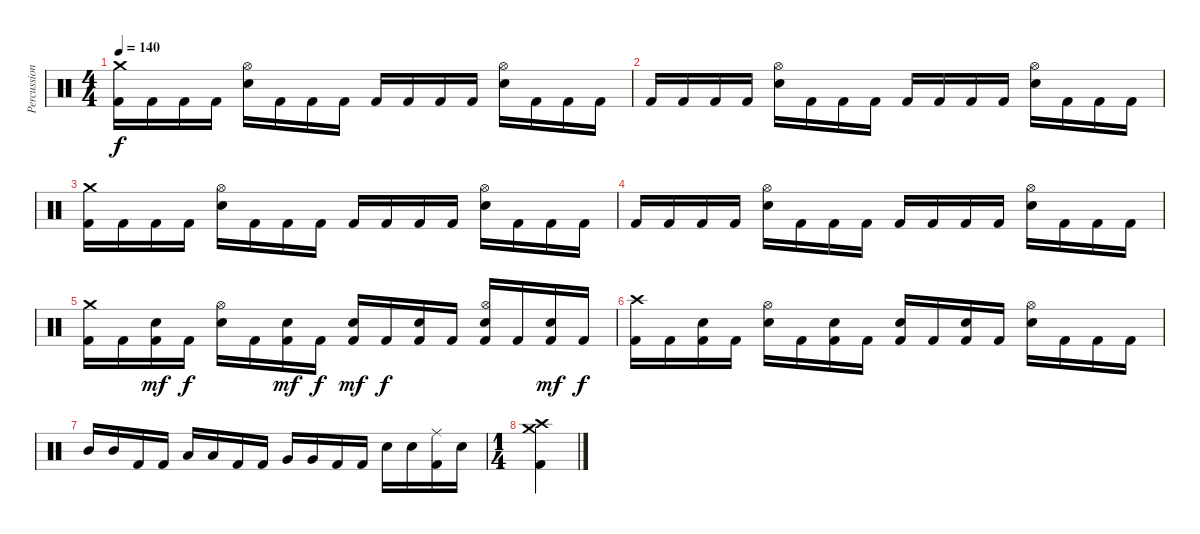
\track ("Percussion" "Percussion") {instrument percussion}
\staff {score}
\articulation defaults
\ts (4 4)
\tempo 140
\clef neutral
\ks c
("Crash medium (hit)" "Kick (hit) 2").16{dy f} "Kick (hit) 2".16 "Kick (hit) 2".16 "Kick (hit) 2".16 ("Hi-Hat (open)" "Electric Snare (hit)").16 "Kick (hit) 2".16 "Kick (hit) 2".16 "Kick (hit) 2".16 "Kick (hit) 2".16 "Kick (hit) 2".16 "Kick (hit) 2".16 "Kick (hit) 2".16 ("Hi-Hat (open)" "Electric Snare (hit)").16 "Kick (hit) 2".16 "Kick (hit) 2".16 "Kick (hit) 2".16 |
"Kick (hit) 2".16 "Kick (hit) 2".16 "Kick (hit) 2".16 "Kick (hit) 2".16 ("Hi-Hat (open)" "Electric Snare (hit)").16 "Kick (hit) 2".16 "Kick (hit) 2".16 "Kick (hit) 2".16 "Kick (hit) 2".16 "Kick (hit) 2".16 "Kick (hit) 2".16 "Kick (hit) 2".16 ("Hi-Hat (open)" "Electric Snare (hit)").16 "Kick (hit) 2".16 "Kick (hit) 2".16 "Kick (hit) 2".16 |
("Crash medium (hit)" "Kick (hit) 2").16 "Kick (hit) 2".16 "Kick (hit) 2".16 "Kick (hit) 2".16 ("Hi-Hat (open)" "Electric Snare (hit)").16 "Kick (hit) 2".16 "Kick (hit) 2".16 "Kick (hit) 2".16 "Kick (hit) 2".16 "Kick (hit) 2".16 "Kick (hit) 2".16 "Kick (hit) 2".16 ("Hi-Hat (open)" "Electric Snare (hit)").16 "Kick (hit) 2".16 "Kick (hit) 2".16 "Kick (hit) 2".16 |
"Kick (hit) 2".16 "Kick (hit) 2".16 "Kick (hit) 2".16 "Kick (hit) 2".16 ("Hi-Hat (open)" "Electric Snare (hit)").16 "Kick (hit) 2".16 "Kick (hit) 2".16 "Kick (hit) 2".16 "Kick (hit) 2".16 "Kick (hit) 2".16 "Kick (hit) 2".16 "Kick (hit) 2".16 ("Hi-Hat (open)" "Electric Snare (hit)").16 "Kick (hit) 2".16 "Kick (hit) 2".16 "Kick (hit) 2".16 |
("Crash medium (hit)" "Kick (hit) 2").16 "Kick (hit) 2".16 ("Electric Snare (hit)" "Kick (hit) 2").16{dy mf} "Kick (hit) 2".16{dy f} ("Hi-Hat (open)" "Electric Snare (hit)").16 "Kick (hit) 2".16 ("Electric Snare (hit)" "Kick (hit) 2").16{dy mf} "Kick (hit) 2".16{dy f} ("Electric Snare (hit)" "Kick (hit) 2").16{dy mf} "Kick (hit) 2".16{dy f} ("Electric Snare (hit)" "Kick (hit) 2").16 "Kick (hit) 2".16 ("Hi-Hat (open)" "Electric Snare (hit)" "Kick (hit) 2").16 "Kick (hit) 2".16 ("Electric Snare (hit)" "Kick (hit) 2").16{dy mf} "Kick (hit) 2".16{dy f} |
("Crash high (hit)" "Kick (hit) 2").16 "Kick (hit) 2".16 ("Electric Snare (hit)" "Kick (hit) 2").16 "Kick (hit) 2".16 ("Hi-Hat (open)" "Electric Snare (hit)").16{volume 13} "Kick (hit) 2".16 ("Electric Snare (hit)" "Kick (hit) 2").16 "Kick (hit) 2".16 ("Electric Snare (hit)" "Kick (hit) 2").16{volume 13} "Kick (hit) 2".16 ("Electric Snare (hit)" "Kick (hit) 2").16 "Kick (hit) 2".16 ("Hi-Hat (open)" "Electric Snare (hit)").16{volume 13} "Kick (hit) 2".16{volume 13} "Kick (hit) 2".16{volume 13} "Kick (hit) 2".16{volume 13} |
"Mid Tom (hit)".16{volume 15} "Mid Tom (hit)".16 "Kick (hit) 2".16 "Kick (hit) 2".16 "Low Tom (hit)".16 "Low Tom (hit)".16 "Kick (hit) 2".16 "Kick (hit) 2".16 "Very Low Tom (hit)".16 "Very Low Tom (hit)".16 "Kick (hit) 2".16 "Kick (hit) 2".16 "Electric Snare (hit)".16 "Electric Snare (hit)".16 ("Ride (middle)" "Kick (hit) 2").16 "Electric Snare (hit)".16 |
\ts (1 4)
("Crash medium (hit)" "Crash high (hit)" "Kick (hit) 2").4
